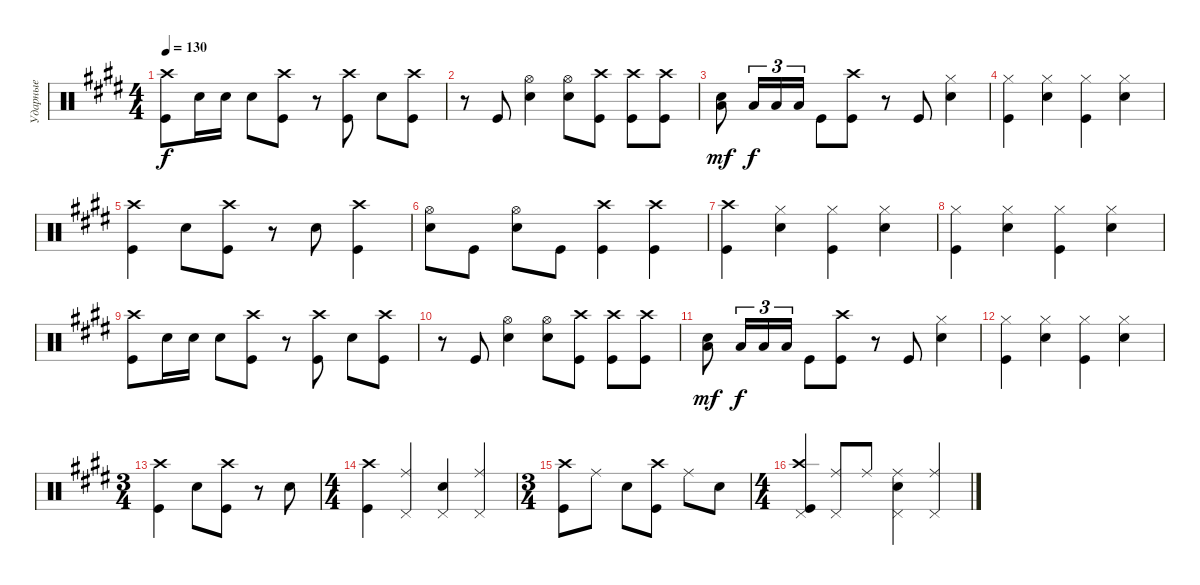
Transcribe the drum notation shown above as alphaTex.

\track ("Ударные" "Ударные") {instrument percussion}
\staff {score}
\articulation defaults
\ts (4 4)
\tempo 130
\clef neutral
\ks c#minor
("Kick (hit)" "Crash high (hit)").8{dy f} "Snare (hit) 2".16 "Snare (hit) 2".16 "Snare (hit) 2".8 ("Kick (hit)" "Crash high (hit)").8 r.8 ("Kick (hit)" "Crash high (hit)").8 "Snare (hit) 2".8 ("Kick (hit)" "Crash high (hit)").8 |
r.8 "Kick (hit)".8 ("Snare (hit) 2" "Hi-Hat (open)").4 ("Snare (hit) 2" "Hi-Hat (open)").8 ("Crash high (hit)" "Kick (hit)").8 ("Kick (hit)" "Crash high (hit)").8 ("Kick (hit)" "Crash high (hit)").8 |
("Low Tom (hit)" "Snare (hit) 2").8{bd 120 dy mf} "Low Tom (hit)".16{tu (3 2) dy f} "Low Tom (hit)".16{tu (3 2)} "Low Tom (hit)".16{tu (3 2)} "Kick (hit)".8 ("Kick (hit)" "Crash high (hit)").8 r.8 "Kick (hit)".8 ("Snare (hit) 2" "Hi-Hat (closed)").4 |
("Kick (hit)" "Hi-Hat (closed)").4 ("Snare (hit) 2" "Hi-Hat (closed)").4 ("Kick (hit)" "Hi-Hat (closed)").4 ("Snare (hit) 2" "Hi-Hat (closed)").4 |
("Kick (hit)" "Crash high (hit)").4 "Snare (hit) 2".8 ("Kick (hit)" "Crash high (hit)").8 r.8 "Snare (hit) 2".8 ("Kick (hit)" "Crash high (hit)").4 |
("Snare (hit) 2" "Hi-Hat (open)").8 "Kick (hit)".8 ("Snare (hit) 2" "Hi-Hat (open)").8 "Kick (hit)".8 ("Kick (hit)" "Crash high (hit)").4 ("Kick (hit)" "Crash high (hit)").4 |
("Kick (hit)" "Crash high (hit)").4 ("Snare (hit) 2" "Hi-Hat (closed)").4 ("Kick (hit)" "Hi-Hat (closed)").4 ("Snare (hit) 2" "Hi-Hat (closed)").4 |
("Kick (hit)" "Hi-Hat (closed)").4 ("Snare (hit) 2" "Hi-Hat (closed)").4 ("Kick (hit)" "Hi-Hat (closed)").4 ("Snare (hit) 2" "Hi-Hat (closed)").4 |
("Kick (hit)" "Crash high (hit)").8 "Snare (hit) 2".16 "Snare (hit) 2".16 "Snare (hit) 2".8 ("Kick (hit)" "Crash high (hit)").8 r.8 ("Kick (hit)" "Crash high (hit)").8 "Snare (hit) 2".8 ("Kick (hit)" "Crash high (hit)").8 |
r.8 "Kick (hit)".8 ("Snare (hit) 2" "Hi-Hat (open)").4 ("Snare (hit) 2" "Hi-Hat (open)").8 ("Crash high (hit)" "Kick (hit)").8 ("Kick (hit)" "Crash high (hit)").8 ("Kick (hit)" "Crash high (hit)").8 |
("Low Tom (hit)" "Snare (hit) 2").8{bd 120 dy mf} "Low Tom (hit)".16{tu (3 2) dy f} "Low Tom (hit)".16{tu (3 2)} "Low Tom (hit)".16{tu (3 2)} "Kick (hit)".8 ("Kick (hit)" "Crash high (hit)").8 r.8 "Kick (hit)".8 ("Snare (hit) 2" "Hi-Hat (closed)").4 |
("Kick (hit)" "Hi-Hat (closed)").4 ("Snare (hit) 2" "Hi-Hat (closed)").4 ("Kick (hit)" "Hi-Hat (closed)").4 ("Snare (hit) 2" "Hi-Hat (closed)").4 |
\ts (3 4)
("Kick (hit)" "Crash high (hit)").4 "Snare (hit) 2".8 ("Kick (hit)" "Crash high (hit)").8 r.8 "Snare (hit) 2".8 |
\ts (4 4)
("Kick (hit)" "Crash high (hit)").4 ("Pedal Hi-Hat (hit)" "Ride (middle)").4 ("Pedal Hi-Hat (hit)" "Snare (hit) 2").4 ("Pedal Hi-Hat (hit)" "Ride (middle)").4 |
\ts (3 4)
("Kick (hit)" "Crash high (hit)").8 "Ride (middle)".8 "Snare (hit) 2".8 ("Kick (hit)" "Crash high (hit)").8 "Ride (middle)".8 "Snare (hit) 2".8 |
\ts (4 4)
("Kick (hit)" "Crash high (hit)" "Pedal Hi-Hat (hit)").4 ("Ride (middle)" "Pedal Hi-Hat (hit)").8 "Ride (middle)".8 ("Snare (hit) 2" "Ride (middle)" "Pedal Hi-Hat (hit)").4 ("Ride (middle)" "Pedal Hi-Hat (hit)").4
